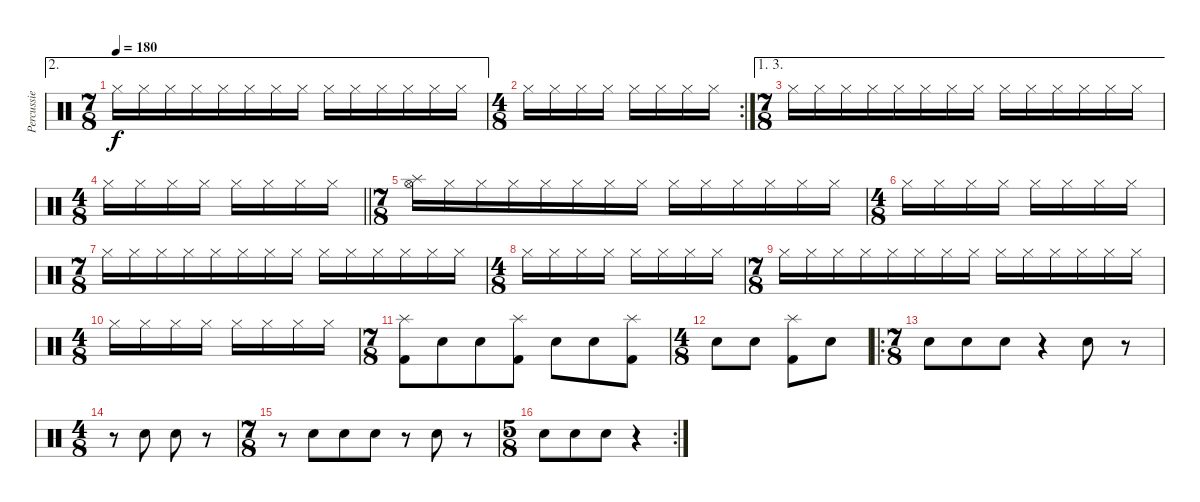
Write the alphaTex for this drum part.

\track ("Percussie" "Percussie") {instrument percussion}
\staff {score}
\articulation defaults
\ae 2
\ts (7 8)
\tempo 180
\clef neutral
\ks c "Hi-Hat (closed)".16{dy f} "Hi-Hat (closed)".16{balance 0} "Hi-Hat (closed)".16 "Hi-Hat (closed)".16{balance 16} "Hi-Hat (closed)".16 "Hi-Hat (closed)".16 "Hi-Hat (closed)".16{balance 0} "Hi-Hat (closed)".16 "Hi-Hat (closed)".16{balance 16} "Hi-Hat (closed)".16 "Hi-Hat (closed)".16 "Hi-Hat (closed)".16{balance 0} "Hi-Hat (closed)".16 "Hi-Hat (closed)".16{balance 16}
|
\rc 2
\ts (4 8)
"Hi-Hat (closed)".16 "Hi-Hat (closed)".16 "Hi-Hat (closed)".16{balance 0} "Hi-Hat (closed)".16 "Hi-Hat (closed)".16{balance 16} "Hi-Hat (closed)".16 "Hi-Hat (closed)".16 "Hi-Hat (closed)".16{balance 0} |
\ae (1 3)
\ts (7 8)
"Hi-Hat (closed)".16 "Hi-Hat (closed)".16{balance 0} "Hi-Hat (closed)".16 "Hi-Hat (closed)".16{balance 16} "Hi-Hat (closed)".16 "Hi-Hat (closed)".16 "Hi-Hat (closed)".16{balance 0} "Hi-Hat (closed)".16 "Hi-Hat (closed)".16{balance 16} "Hi-Hat (closed)".16 "Hi-Hat (closed)".16 "Hi-Hat (closed)".16{balance 0} "Hi-Hat (closed)".16 "Hi-Hat (closed)".16{balance 16} |
\ts (4 8)
\barLineRight lightlight "Hi-Hat (closed)".16 "Hi-Hat (closed)".16 "Hi-Hat (closed)".16{balance 0} "Hi-Hat (closed)".16 "Hi-Hat (closed)".16{balance 16} "Hi-Hat (closed)".16 "Hi-Hat (closed)".16 "Hi-Hat (closed)".16{balance 0}
|
\ts (7 8)
("Splash (hit)" "Hi-Hat (open)").16{balance 16} "Hi-Hat (closed)".16 "Hi-Hat (closed)".16 "Hi-Hat (closed)".16{balance 0} "Hi-Hat (closed)".16 "Hi-Hat (closed)".16{balance 16} "Hi-Hat (closed)".16 "Hi-Hat (closed)".16 "Hi-Hat (closed)".16{balance 0} "Hi-Hat (closed)".16 "Hi-Hat (closed)".16{balance 16} "Hi-Hat (closed)".16 "Hi-Hat (closed)".16 "Hi-Hat (closed)".16{balance 0} |
\ts (4 8)
"Hi-Hat (closed)".16 "Hi-Hat (closed)".16{balance 16} "Hi-Hat (closed)".16 "Hi-Hat (closed)".16 "Hi-Hat (closed)".16{balance 0} "Hi-Hat (closed)".16 "Hi-Hat (closed)".16{balance 16} "Hi-Hat (closed)".16 |
\ts (7 8)
"Hi-Hat (closed)".16 "Hi-Hat (closed)".16{balance 0} "Hi-Hat (closed)".16 "Hi-Hat (closed)".16{balance 16} "Hi-Hat (closed)".16 "Hi-Hat (closed)".16 "Hi-Hat (closed)".16{balance 0} "Hi-Hat (closed)".16 "Hi-Hat (closed)".16{balance 16} "Hi-Hat (closed)".16 "Hi-Hat (closed)".16 "Hi-Hat (closed)".16{balance 0} "Hi-Hat (closed)".16 "Hi-Hat (closed)".16{balance 16} |
\ts (4 8)
"Hi-Hat (closed)".16 "Hi-Hat (closed)".16 "Hi-Hat (closed)".16{balance 0} "Hi-Hat (closed)".16 "Hi-Hat (closed)".16{balance 16} "Hi-Hat (closed)".16 "Hi-Hat (closed)".16 "Hi-Hat (closed)".16{balance 0} |
\ts (7 8)
"Hi-Hat (closed)".16 "Hi-Hat (closed)".16{balance 0} "Hi-Hat (closed)".16 "Hi-Hat (closed)".16{balance 16} "Hi-Hat (closed)".16 "Hi-Hat (closed)".16 "Hi-Hat (closed)".16{balance 0} "Hi-Hat (closed)".16 "Hi-Hat (closed)".16{balance 16} "Hi-Hat (closed)".16 "Hi-Hat (closed)".16 "Hi-Hat (closed)".16{balance 0} "Hi-Hat (closed)".16 "Hi-Hat (closed)".16{balance 16} |
\ts (4 8)
"Hi-Hat (closed)".16 "Hi-Hat (closed)".16 "Hi-Hat (closed)".16{balance 0} "Hi-Hat (closed)".16 "Hi-Hat (closed)".16{balance 16} "Hi-Hat (closed)".16 "Hi-Hat (closed)".16 "Hi-Hat (closed)".16{balance 0} |
\ts (7 8)
("Splash (hit)" "Kick (hit) 2").8{balance 8} "Snare (hit) 2".8 "Snare (hit) 2".8 ("Splash (hit)" "Kick (hit) 2").8 "Snare (hit) 2".8 "Snare (hit) 2".8 ("Splash (hit)" "Kick (hit) 2").8 |
\ts (4 8)
"Snare (hit) 2".8 "Snare (hit) 2".8 ("Splash (hit)" "Kick (hit) 2").8 "Snare (hit) 2".8 |
\ro
\ts (7 8)
"Snare (hit) 2".8 "Snare (hit) 2".8 "Snare (hit) 2".8 r.4 "Snare (hit) 2".8 r.8 |
\ts (4 8)
r.8 "Snare (hit) 2".8 "Snare (hit) 2".8 r.8 |
\ts (7 8)
r.8 "Snare (hit) 2".8 "Snare (hit) 2".8 "Snare (hit) 2".8 r.8 "Snare (hit) 2".8 r.8 |
\rc 2
\ts (5 8)
"Snare (hit) 2".8 "Snare (hit) 2".8 "Snare (hit) 2".8 r.4
